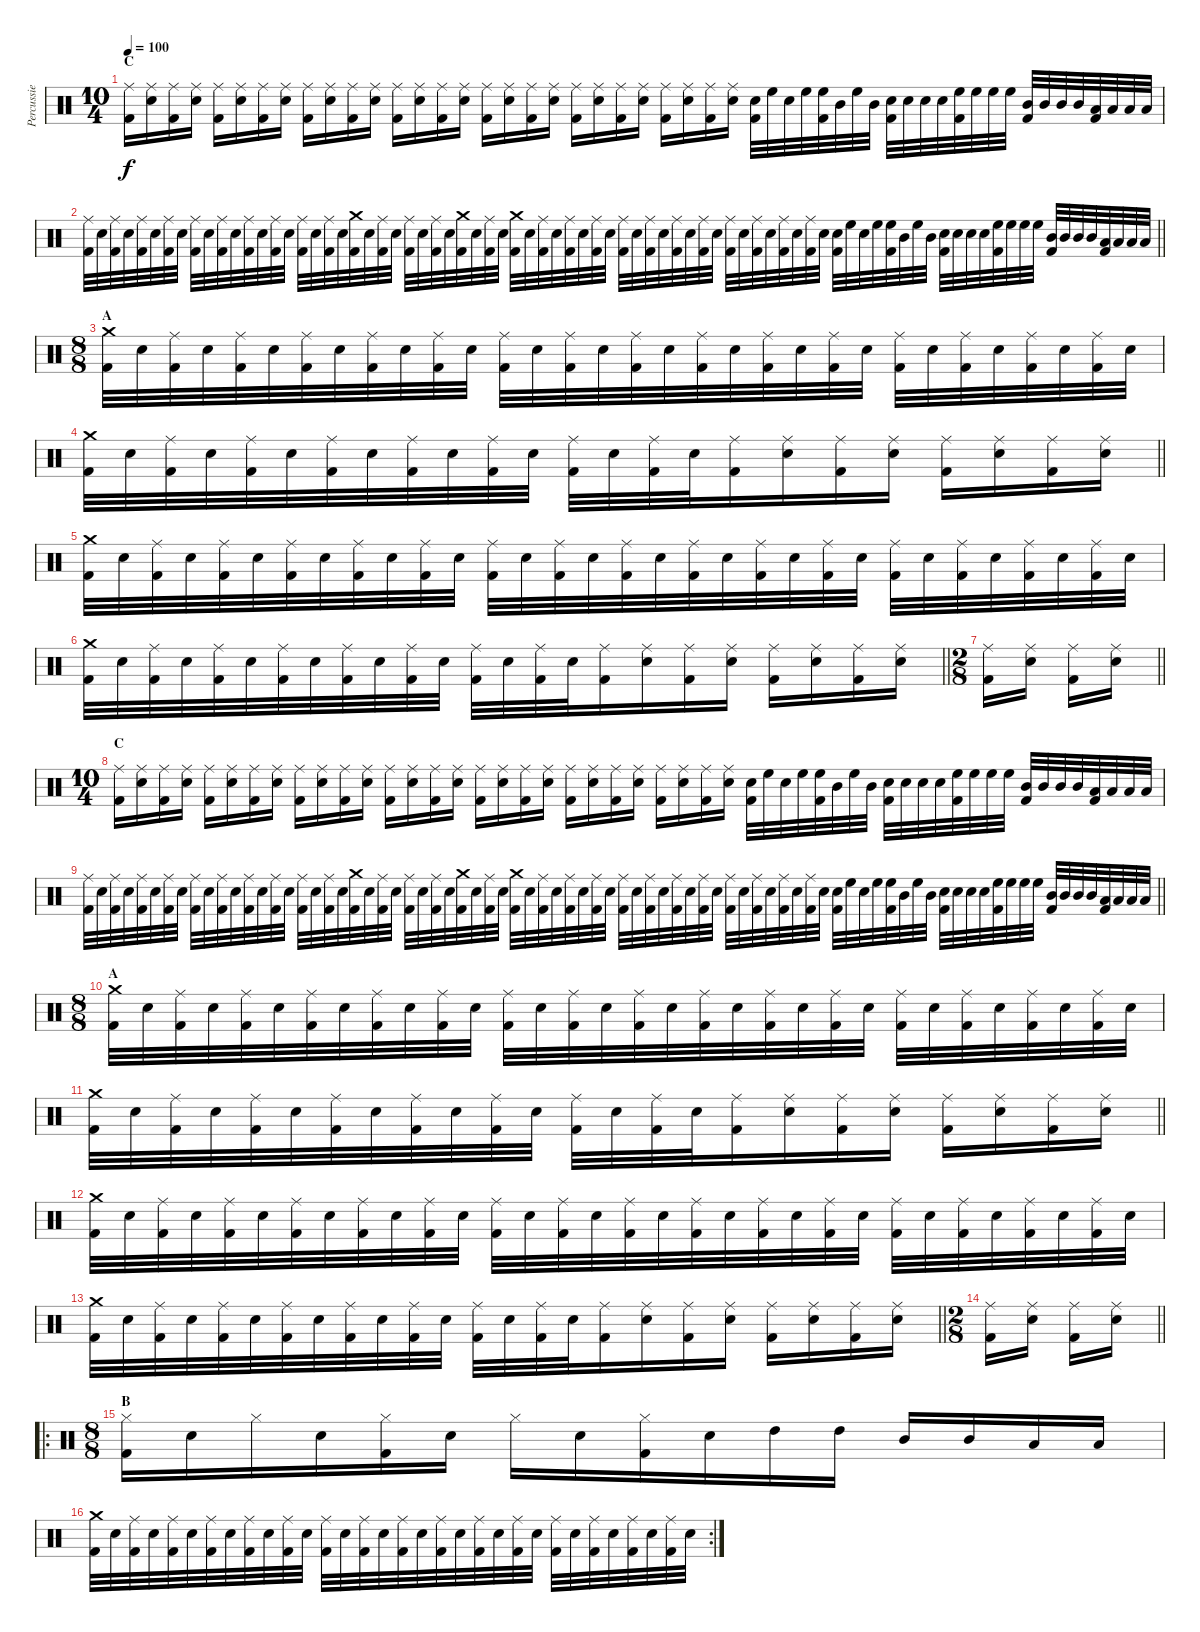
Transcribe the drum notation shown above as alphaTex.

\track ("Percussie" "Percussie") {instrument percussion}
\staff {score}
\articulation defaults
\ts (10 4)
\section ("" "C")
\tempo 100
\clef neutral
\ks c
("Ride (middle)" "Kick (hit) 2").16{dy f} ("Ride (middle)" "Electric Snare (hit)").16 ("Ride (middle)" "Kick (hit) 2").16 ("Ride (middle)" "Electric Snare (hit)").16 ("Ride (middle)" "Kick (hit) 2").16 ("Ride (middle)" "Electric Snare (hit)").16 ("Ride (middle)" "Kick (hit) 2").16 ("Ride (middle)" "Electric Snare (hit)").16 ("Ride (middle)" "Kick (hit) 2").16 ("Ride (middle)" "Electric Snare (hit)").16 ("Ride (middle)" "Kick (hit) 2").16 ("Ride (middle)" "Electric Snare (hit)").16 ("Ride (middle)" "Kick (hit) 2").16 ("Ride (middle)" "Electric Snare (hit)").16 ("Ride (middle)" "Kick (hit) 2").16 ("Ride (middle)" "Electric Snare (hit)").16 ("Ride (middle)" "Kick (hit) 2").16 ("Ride (middle)" "Electric Snare (hit)").16 ("Ride (middle)" "Kick (hit) 2").16 ("Ride (middle)" "Electric Snare (hit)").16 ("Ride (middle)" "Kick (hit) 2").16 ("Ride (middle)" "Electric Snare (hit)").16 ("Ride (middle)" "Kick (hit) 2").16 ("Ride (middle)" "Electric Snare (hit)").16 ("Ride (middle)" "Kick (hit) 2").16 ("Ride (middle)" "Electric Snare (hit)").16 ("Ride (middle)" "Kick (hit) 2").16 ("Ride (middle)" "Electric Snare (hit)").16 ("Electric Snare (hit)" "Kick (hit) 2").32 "High Floor Tom (hit)".32 "Electric Snare (hit)".32 "High Floor Tom (hit)".32 ("High Floor Tom (hit)" "Kick (hit) 2").32 "Mid Tom (hit)".32 "High Floor Tom (hit)".32 "Mid Tom (hit)".32 ("Electric Snare (hit)" "Kick (hit) 2").32 "Electric Snare (hit)".32 "Electric Snare (hit)".32 "Electric Snare (hit)".32 ("High Floor Tom (hit)" "Kick (hit) 2").32 "High Floor Tom (hit)".32 "High Floor Tom (hit)".32 "High Floor Tom (hit)".32 ("Mid Tom (hit)" "Kick (hit) 2").32 "Mid Tom (hit)".32 "Mid Tom (hit)".32 "Mid Tom (hit)".32 ("Low Tom (hit)" "Kick (hit) 2").32 "Low Tom (hit)".32 "Low Tom (hit)".32 "Low Tom (hit)".32 |
\barLineRight lightlight
("Ride (middle)" "Kick (hit) 2").32 "Electric Snare (hit)".32 ("Ride (middle)" "Kick (hit) 2").32 "Electric Snare (hit)".32 ("Ride (middle)" "Kick (hit) 2").32 "Electric Snare (hit)".32 ("Ride (middle)" "Kick (hit) 2").32 "Electric Snare (hit)".32 ("Ride (middle)" "Kick (hit) 2").32 "Electric Snare (hit)".32 ("Ride (middle)" "Kick (hit) 2").32 "Electric Snare (hit)".32 ("Ride (middle)" "Kick (hit) 2").32 "Electric Snare (hit)".32 ("Ride (middle)" "Kick (hit) 2").32 "Electric Snare (hit)".32 ("Ride (middle)" "Kick (hit) 2").32 "Electric Snare (hit)".32 ("Ride (middle)" "Kick (hit) 2").32 "Electric Snare (hit)".32 ("Crash medium (hit)" "Kick (hit) 2").32 "Electric Snare (hit)".32 ("Ride (middle)" "Kick (hit) 2").32 "Electric Snare (hit)".32 ("Ride (middle)" "Kick (hit) 2").32 "Electric Snare (hit)".32 ("Ride (middle)" "Kick (hit) 2").32 "Electric Snare (hit)".32 ("Crash medium (hit)" "Kick (hit) 2").32 "Electric Snare (hit)".32 ("Ride (middle)" "Kick (hit) 2").32 "Electric Snare (hit)".32 ("Crash medium (hit)" "Kick (hit) 2").32 "Electric Snare (hit)".32 ("Ride (middle)" "Kick (hit) 2").32 "Electric Snare (hit)".32 ("Ride (middle)" "Kick (hit) 2").32 "Electric Snare (hit)".32 ("Ride (middle)" "Kick (hit) 2").32 "Electric Snare (hit)".32 ("Ride (middle)" "Kick (hit) 2").32 "Electric Snare (hit)".32 ("Ride (middle)" "Kick (hit) 2").32 "Electric Snare (hit)".32 ("Ride (middle)" "Kick (hit) 2").32 "Electric Snare (hit)".32 ("Ride (middle)" "Kick (hit) 2").32 "Electric Snare (hit)".32 ("Ride (middle)" "Kick (hit) 2").32 "Electric Snare (hit)".32 ("Ride (middle)" "Kick (hit) 2").32 "Electric Snare (hit)".32 ("Ride (middle)" "Kick (hit) 2").32 "Electric Snare (hit)".32 ("Ride (middle)" "Kick (hit) 2").32 "Electric Snare (hit)".32 ("Electric Snare (hit)" "Kick (hit) 2").32 "High Floor Tom (hit)".32 "Electric Snare (hit)".32 "High Floor Tom (hit)".32 ("High Floor Tom (hit)" "Kick (hit) 2").32 "Mid Tom (hit)".32 "High Floor Tom (hit)".32 "Mid Tom (hit)".32 ("Electric Snare (hit)" "Kick (hit) 2").32 "Electric Snare (hit)".32 "Electric Snare (hit)".32 "Electric Snare (hit)".32 ("High Floor Tom (hit)" "Kick (hit) 2").32 "High Floor Tom (hit)".32 "High Floor Tom (hit)".32 "High Floor Tom (hit)".32 ("Mid Tom (hit)" "Kick (hit) 2").32 "Mid Tom (hit)".32 "Mid Tom (hit)".32 "Mid Tom (hit)".32 ("Low Tom (hit)" "Kick (hit) 2").32 "Low Tom (hit)".32 "Low Tom (hit)".32 "Low Tom (hit)".32 |
\ts (8 8)
\section ("" "A")
("Crash medium (hit)" "Kick (hit) 2").32 "Electric Snare (hit)".32 ("Ride (middle)" "Kick (hit) 2").32 "Electric Snare (hit)".32 ("Ride (middle)" "Kick (hit) 2").32 "Electric Snare (hit)".32 ("Ride (middle)" "Kick (hit) 2").32 "Electric Snare (hit)".32 ("Ride (middle)" "Kick (hit) 2").32 "Electric Snare (hit)".32 ("Ride (middle)" "Kick (hit) 2").32 "Electric Snare (hit)".32 ("Ride (middle)" "Kick (hit) 2").32 "Electric Snare (hit)".32 ("Ride (middle)" "Kick (hit) 2").32 "Electric Snare (hit)".32 ("Ride (middle)" "Kick (hit) 2").32 "Electric Snare (hit)".32 ("Ride (middle)" "Kick (hit) 2").32 "Electric Snare (hit)".32 ("Ride (middle)" "Kick (hit) 2").32 "Electric Snare (hit)".32 ("Ride (middle)" "Kick (hit) 2").32 "Electric Snare (hit)".32 ("Ride (middle)" "Kick (hit) 2").32 "Electric Snare (hit)".32 ("Ride (middle)" "Kick (hit) 2").32 "Electric Snare (hit)".32 ("Ride (middle)" "Kick (hit) 2").32 "Electric Snare (hit)".32 ("Ride (middle)" "Kick (hit) 2").32 "Electric Snare (hit)".32 |
\barLineRight lightlight
("Crash medium (hit)" "Kick (hit) 2").32 "Electric Snare (hit)".32 ("Ride (middle)" "Kick (hit) 2").32 "Electric Snare (hit)".32 ("Ride (middle)" "Kick (hit) 2").32 "Electric Snare (hit)".32 ("Ride (middle)" "Kick (hit) 2").32 "Electric Snare (hit)".32 ("Ride (middle)" "Kick (hit) 2").32 "Electric Snare (hit)".32 ("Ride (middle)" "Kick (hit) 2").32 "Electric Snare (hit)".32 ("Ride (middle)" "Kick (hit) 2").32 "Electric Snare (hit)".32 ("Ride (middle)" "Kick (hit) 2").32 "Electric Snare (hit)".32 ("Ride (middle)" "Kick (hit) 2").16 ("Ride (middle)" "Electric Snare (hit)").16 ("Ride (middle)" "Kick (hit) 2").16 ("Ride (middle)" "Electric Snare (hit)").16 ("Ride (middle)" "Kick (hit) 2").16 ("Ride (middle)" "Electric Snare (hit)").16 ("Ride (middle)" "Kick (hit) 2").16 ("Ride (middle)" "Electric Snare (hit)").16 |
("Crash medium (hit)" "Kick (hit) 2").32 "Electric Snare (hit)".32 ("Ride (middle)" "Kick (hit) 2").32 "Electric Snare (hit)".32 ("Ride (middle)" "Kick (hit) 2").32 "Electric Snare (hit)".32 ("Ride (middle)" "Kick (hit) 2").32 "Electric Snare (hit)".32 ("Ride (middle)" "Kick (hit) 2").32 "Electric Snare (hit)".32 ("Ride (middle)" "Kick (hit) 2").32 "Electric Snare (hit)".32 ("Ride (middle)" "Kick (hit) 2").32 "Electric Snare (hit)".32 ("Ride (middle)" "Kick (hit) 2").32 "Electric Snare (hit)".32 ("Ride (middle)" "Kick (hit) 2").32 "Electric Snare (hit)".32 ("Ride (middle)" "Kick (hit) 2").32 "Electric Snare (hit)".32 ("Ride (middle)" "Kick (hit) 2").32 "Electric Snare (hit)".32 ("Ride (middle)" "Kick (hit) 2").32 "Electric Snare (hit)".32 ("Ride (middle)" "Kick (hit) 2").32 "Electric Snare (hit)".32 ("Ride (middle)" "Kick (hit) 2").32 "Electric Snare (hit)".32 ("Ride (middle)" "Kick (hit) 2").32 "Electric Snare (hit)".32 ("Ride (middle)" "Kick (hit) 2").32 "Electric Snare (hit)".32 |
\barLineRight lightlight
("Crash medium (hit)" "Kick (hit) 2").32 "Electric Snare (hit)".32 ("Ride (middle)" "Kick (hit) 2").32 "Electric Snare (hit)".32 ("Ride (middle)" "Kick (hit) 2").32 "Electric Snare (hit)".32 ("Ride (middle)" "Kick (hit) 2").32 "Electric Snare (hit)".32 ("Ride (middle)" "Kick (hit) 2").32 "Electric Snare (hit)".32 ("Ride (middle)" "Kick (hit) 2").32 "Electric Snare (hit)".32 ("Ride (middle)" "Kick (hit) 2").32 "Electric Snare (hit)".32 ("Ride (middle)" "Kick (hit) 2").32 "Electric Snare (hit)".32 ("Ride (middle)" "Kick (hit) 2").16 ("Ride (middle)" "Electric Snare (hit)").16 ("Ride (middle)" "Kick (hit) 2").16 ("Ride (middle)" "Electric Snare (hit)").16 ("Ride (middle)" "Kick (hit) 2").16 ("Ride (middle)" "Electric Snare (hit)").16 ("Ride (middle)" "Kick (hit) 2").16 ("Ride (middle)" "Electric Snare (hit)").16 |
\ts (2 8)
\barLineRight lightlight
("Ride (middle)" "Kick (hit) 2").16 ("Ride (middle)" "Electric Snare (hit)").16 ("Ride (middle)" "Kick (hit) 2").16 ("Ride (middle)" "Electric Snare (hit)").16 |
\ts (10 4)
\section ("" "C")
("Ride (middle)" "Kick (hit) 2").16 ("Ride (middle)" "Electric Snare (hit)").16 ("Ride (middle)" "Kick (hit) 2").16 ("Ride (middle)" "Electric Snare (hit)").16 ("Ride (middle)" "Kick (hit) 2").16 ("Ride (middle)" "Electric Snare (hit)").16 ("Ride (middle)" "Kick (hit) 2").16 ("Ride (middle)" "Electric Snare (hit)").16 ("Ride (middle)" "Kick (hit) 2").16 ("Ride (middle)" "Electric Snare (hit)").16 ("Ride (middle)" "Kick (hit) 2").16 ("Ride (middle)" "Electric Snare (hit)").16 ("Ride (middle)" "Kick (hit) 2").16 ("Ride (middle)" "Electric Snare (hit)").16 ("Ride (middle)" "Kick (hit) 2").16 ("Ride (middle)" "Electric Snare (hit)").16 ("Ride (middle)" "Kick (hit) 2").16 ("Ride (middle)" "Electric Snare (hit)").16 ("Ride (middle)" "Kick (hit) 2").16 ("Ride (middle)" "Electric Snare (hit)").16 ("Ride (middle)" "Kick (hit) 2").16 ("Ride (middle)" "Electric Snare (hit)").16 ("Ride (middle)" "Kick (hit) 2").16 ("Ride (middle)" "Electric Snare (hit)").16 ("Ride (middle)" "Kick (hit) 2").16 ("Ride (middle)" "Electric Snare (hit)").16 ("Ride (middle)" "Kick (hit) 2").16 ("Ride (middle)" "Electric Snare (hit)").16 ("Electric Snare (hit)" "Kick (hit) 2").32 "High Floor Tom (hit)".32 "Electric Snare (hit)".32 "High Floor Tom (hit)".32 ("High Floor Tom (hit)" "Kick (hit) 2").32 "Mid Tom (hit)".32 "High Floor Tom (hit)".32 "Mid Tom (hit)".32 ("Electric Snare (hit)" "Kick (hit) 2").32 "Electric Snare (hit)".32 "Electric Snare (hit)".32 "Electric Snare (hit)".32 ("High Floor Tom (hit)" "Kick (hit) 2").32 "High Floor Tom (hit)".32 "High Floor Tom (hit)".32 "High Floor Tom (hit)".32 ("Mid Tom (hit)" "Kick (hit) 2").32 "Mid Tom (hit)".32 "Mid Tom (hit)".32 "Mid Tom (hit)".32 ("Low Tom (hit)" "Kick (hit) 2").32 "Low Tom (hit)".32 "Low Tom (hit)".32 "Low Tom (hit)".32 |
\barLineRight lightlight
("Ride (middle)" "Kick (hit) 2").32 "Electric Snare (hit)".32 ("Ride (middle)" "Kick (hit) 2").32 "Electric Snare (hit)".32 ("Ride (middle)" "Kick (hit) 2").32 "Electric Snare (hit)".32 ("Ride (middle)" "Kick (hit) 2").32 "Electric Snare (hit)".32 ("Ride (middle)" "Kick (hit) 2").32 "Electric Snare (hit)".32 ("Ride (middle)" "Kick (hit) 2").32 "Electric Snare (hit)".32 ("Ride (middle)" "Kick (hit) 2").32 "Electric Snare (hit)".32 ("Ride (middle)" "Kick (hit) 2").32 "Electric Snare (hit)".32 ("Ride (middle)" "Kick (hit) 2").32 "Electric Snare (hit)".32 ("Ride (middle)" "Kick (hit) 2").32 "Electric Snare (hit)".32 ("Crash medium (hit)" "Kick (hit) 2").32 "Electric Snare (hit)".32 ("Ride (middle)" "Kick (hit) 2").32 "Electric Snare (hit)".32 ("Ride (middle)" "Kick (hit) 2").32 "Electric Snare (hit)".32 ("Ride (middle)" "Kick (hit) 2").32 "Electric Snare (hit)".32 ("Crash medium (hit)" "Kick (hit) 2").32 "Electric Snare (hit)".32 ("Ride (middle)" "Kick (hit) 2").32 "Electric Snare (hit)".32 ("Crash medium (hit)" "Kick (hit) 2").32 "Electric Snare (hit)".32 ("Ride (middle)" "Kick (hit) 2").32 "Electric Snare (hit)".32 ("Ride (middle)" "Kick (hit) 2").32 "Electric Snare (hit)".32 ("Ride (middle)" "Kick (hit) 2").32 "Electric Snare (hit)".32 ("Ride (middle)" "Kick (hit) 2").32 "Electric Snare (hit)".32 ("Ride (middle)" "Kick (hit) 2").32 "Electric Snare (hit)".32 ("Ride (middle)" "Kick (hit) 2").32 "Electric Snare (hit)".32 ("Ride (middle)" "Kick (hit) 2").32 "Electric Snare (hit)".32 ("Ride (middle)" "Kick (hit) 2").32 "Electric Snare (hit)".32 ("Ride (middle)" "Kick (hit) 2").32 "Electric Snare (hit)".32 ("Ride (middle)" "Kick (hit) 2").32 "Electric Snare (hit)".32 ("Ride (middle)" "Kick (hit) 2").32 "Electric Snare (hit)".32 ("Electric Snare (hit)" "Kick (hit) 2").32 "High Floor Tom (hit)".32 "Electric Snare (hit)".32 "High Floor Tom (hit)".32 ("High Floor Tom (hit)" "Kick (hit) 2").32 "Mid Tom (hit)".32 "High Floor Tom (hit)".32 "Mid Tom (hit)".32 ("Electric Snare (hit)" "Kick (hit) 2").32 "Electric Snare (hit)".32 "Electric Snare (hit)".32 "Electric Snare (hit)".32 ("High Floor Tom (hit)" "Kick (hit) 2").32 "High Floor Tom (hit)".32 "High Floor Tom (hit)".32 "High Floor Tom (hit)".32 ("Mid Tom (hit)" "Kick (hit) 2").32 "Mid Tom (hit)".32 "Mid Tom (hit)".32 "Mid Tom (hit)".32 ("Low Tom (hit)" "Kick (hit) 2").32 "Low Tom (hit)".32 "Low Tom (hit)".32 "Low Tom (hit)".32 |
\ts (8 8)
\section ("" "A")
("Crash medium (hit)" "Kick (hit) 2").32 "Electric Snare (hit)".32 ("Ride (middle)" "Kick (hit) 2").32 "Electric Snare (hit)".32 ("Ride (middle)" "Kick (hit) 2").32 "Electric Snare (hit)".32 ("Ride (middle)" "Kick (hit) 2").32 "Electric Snare (hit)".32 ("Ride (middle)" "Kick (hit) 2").32 "Electric Snare (hit)".32 ("Ride (middle)" "Kick (hit) 2").32 "Electric Snare (hit)".32 ("Ride (middle)" "Kick (hit) 2").32 "Electric Snare (hit)".32 ("Ride (middle)" "Kick (hit) 2").32 "Electric Snare (hit)".32 ("Ride (middle)" "Kick (hit) 2").32 "Electric Snare (hit)".32 ("Ride (middle)" "Kick (hit) 2").32 "Electric Snare (hit)".32 ("Ride (middle)" "Kick (hit) 2").32 "Electric Snare (hit)".32 ("Ride (middle)" "Kick (hit) 2").32 "Electric Snare (hit)".32 ("Ride (middle)" "Kick (hit) 2").32 "Electric Snare (hit)".32 ("Ride (middle)" "Kick (hit) 2").32 "Electric Snare (hit)".32 ("Ride (middle)" "Kick (hit) 2").32 "Electric Snare (hit)".32 ("Ride (middle)" "Kick (hit) 2").32 "Electric Snare (hit)".32 |
\barLineRight lightlight
("Crash medium (hit)" "Kick (hit) 2").32 "Electric Snare (hit)".32 ("Ride (middle)" "Kick (hit) 2").32 "Electric Snare (hit)".32 ("Ride (middle)" "Kick (hit) 2").32 "Electric Snare (hit)".32 ("Ride (middle)" "Kick (hit) 2").32 "Electric Snare (hit)".32 ("Ride (middle)" "Kick (hit) 2").32 "Electric Snare (hit)".32 ("Ride (middle)" "Kick (hit) 2").32 "Electric Snare (hit)".32 ("Ride (middle)" "Kick (hit) 2").32 "Electric Snare (hit)".32 ("Ride (middle)" "Kick (hit) 2").32 "Electric Snare (hit)".32 ("Ride (middle)" "Kick (hit) 2").16 ("Ride (middle)" "Electric Snare (hit)").16 ("Ride (middle)" "Kick (hit) 2").16 ("Ride (middle)" "Electric Snare (hit)").16 ("Ride (middle)" "Kick (hit) 2").16 ("Ride (middle)" "Electric Snare (hit)").16 ("Ride (middle)" "Kick (hit) 2").16 ("Ride (middle)" "Electric Snare (hit)").16 |
("Crash medium (hit)" "Kick (hit) 2").32 "Electric Snare (hit)".32 ("Ride (middle)" "Kick (hit) 2").32 "Electric Snare (hit)".32 ("Ride (middle)" "Kick (hit) 2").32 "Electric Snare (hit)".32 ("Ride (middle)" "Kick (hit) 2").32 "Electric Snare (hit)".32 ("Ride (middle)" "Kick (hit) 2").32 "Electric Snare (hit)".32 ("Ride (middle)" "Kick (hit) 2").32 "Electric Snare (hit)".32 ("Ride (middle)" "Kick (hit) 2").32 "Electric Snare (hit)".32 ("Ride (middle)" "Kick (hit) 2").32 "Electric Snare (hit)".32 ("Ride (middle)" "Kick (hit) 2").32 "Electric Snare (hit)".32 ("Ride (middle)" "Kick (hit) 2").32 "Electric Snare (hit)".32 ("Ride (middle)" "Kick (hit) 2").32 "Electric Snare (hit)".32 ("Ride (middle)" "Kick (hit) 2").32 "Electric Snare (hit)".32 ("Ride (middle)" "Kick (hit) 2").32 "Electric Snare (hit)".32 ("Ride (middle)" "Kick (hit) 2").32 "Electric Snare (hit)".32 ("Ride (middle)" "Kick (hit) 2").32 "Electric Snare (hit)".32 ("Ride (middle)" "Kick (hit) 2").32 "Electric Snare (hit)".32 |
\barLineRight lightlight
("Crash medium (hit)" "Kick (hit) 2").32 "Electric Snare (hit)".32 ("Ride (middle)" "Kick (hit) 2").32 "Electric Snare (hit)".32 ("Ride (middle)" "Kick (hit) 2").32 "Electric Snare (hit)".32 ("Ride (middle)" "Kick (hit) 2").32 "Electric Snare (hit)".32 ("Ride (middle)" "Kick (hit) 2").32 "Electric Snare (hit)".32 ("Ride (middle)" "Kick (hit) 2").32 "Electric Snare (hit)".32 ("Ride (middle)" "Kick (hit) 2").32 "Electric Snare (hit)".32 ("Ride (middle)" "Kick (hit) 2").32 "Electric Snare (hit)".32 ("Ride (middle)" "Kick (hit) 2").16 ("Ride (middle)" "Electric Snare (hit)").16 ("Ride (middle)" "Kick (hit) 2").16 ("Ride (middle)" "Electric Snare (hit)").16 ("Ride (middle)" "Kick (hit) 2").16 ("Ride (middle)" "Electric Snare (hit)").16 ("Ride (middle)" "Kick (hit) 2").16 ("Ride (middle)" "Electric Snare (hit)").16 |
\ts (2 8)
\barLineRight lightlight
("Ride (middle)" "Kick (hit) 2").16 ("Ride (middle)" "Electric Snare (hit)").16 ("Ride (middle)" "Kick (hit) 2").16 ("Ride (middle)" "Electric Snare (hit)").16 |
\ro
\ts (8 8)
\section ("" "B")
("Hi-Hat (closed)" "Kick (hit) 2").16 "Electric Snare (hit)".16 "Hi-Hat (closed)".16 "Electric Snare (hit)".16 ("Hi-Hat (closed)" "Kick (hit) 2").16 "Electric Snare (hit)".16 "Hi-Hat (closed)".16 "Electric Snare (hit)".16 ("Hi-Hat (closed)" "Kick (hit) 2").16 "Electric Snare (hit)".16 "High Tom (hit)".16 "High Tom (hit)".16 "Mid Tom (hit)".16 "Mid Tom (hit)".16 "Low Tom (hit)".16 "Low Tom (hit)".16 |
\rc 2
("Crash medium (hit)" "Kick (hit) 2").32 "Electric Snare (hit)".32 ("Ride (middle)" "Kick (hit) 2").32 "Electric Snare (hit)".32 ("Ride (middle)" "Kick (hit) 2").32 "Electric Snare (hit)".32 ("Ride (middle)" "Kick (hit) 2").32 "Electric Snare (hit)".32 ("Ride (middle)" "Kick (hit) 2").32 "Electric Snare (hit)".32 ("Ride (middle)" "Kick (hit) 2").32 "Electric Snare (hit)".32 ("Ride (middle)" "Kick (hit) 2").32 "Electric Snare (hit)".32 ("Ride (middle)" "Kick (hit) 2").32 "Electric Snare (hit)".32 ("Ride (middle)" "Kick (hit) 2").32 "Electric Snare (hit)".32 ("Ride (middle)" "Kick (hit) 2").32 "Electric Snare (hit)".32 ("Ride (middle)" "Kick (hit) 2").32 "Electric Snare (hit)".32 ("Ride (middle)" "Kick (hit) 2").32 "Electric Snare (hit)".32 ("Ride (middle)" "Kick (hit) 2").32 "Electric Snare (hit)".32 ("Ride (middle)" "Kick (hit) 2").32 "Electric Snare (hit)".32 ("Ride (middle)" "Kick (hit) 2").32 "Electric Snare (hit)".32 ("Ride (middle)" "Kick (hit) 2").32 "Electric Snare (hit)".32
